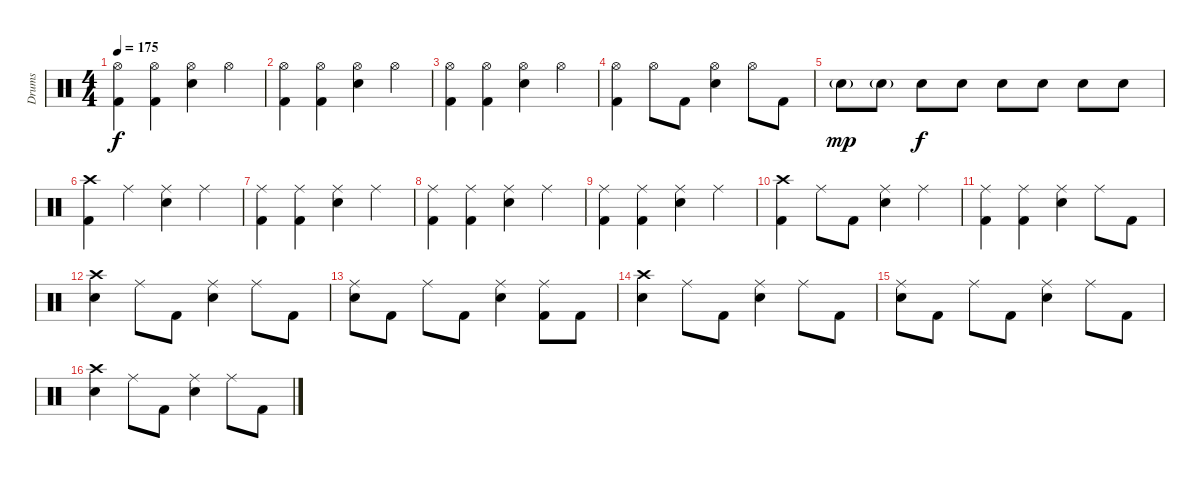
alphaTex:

\track ("Drums" "Drums") {instrument percussion}
\staff {score}
\articulation defaults
\ts (4 4)
\tempo 175
\clef neutral
\ks c
("Hi-Hat (open)" "Kick (hit) 2").4{dy f} ("Hi-Hat (open)" "Kick (hit) 2").4 ("Hi-Hat (open)" "Snare (hit) 2").4 "Hi-Hat (open)".4 |
("Hi-Hat (open)" "Kick (hit) 2").4 ("Hi-Hat (open)" "Kick (hit) 2").4 ("Hi-Hat (open)" "Snare (hit) 2").4 "Hi-Hat (open)".4 |
("Hi-Hat (open)" "Kick (hit) 2").4 ("Hi-Hat (open)" "Kick (hit) 2").4 ("Hi-Hat (open)" "Snare (hit) 2").4 "Hi-Hat (open)".4 |
("Hi-Hat (open)" "Kick (hit) 2").4 "Hi-Hat (open)".8 "Kick (hit) 2".8 ("Hi-Hat (open)" "Snare (hit) 2").4 "Hi-Hat (open)".8 "Kick (hit) 2".8 |
"Snare (hit) 2"{g}.8{dy mp} "Snare (hit) 2"{g}.8 "Snare (hit) 2".8{dy f} "Snare (hit) 2".8 "Snare (hit) 2".8 "Snare (hit) 2".8 "Snare (hit) 2".8 "Snare (hit) 2".8 |
("Crash high (hit)" "Kick (hit) 2").4 "Ride (middle)".4 ("Ride (middle)" "Snare (hit) 2").4 "Ride (middle)".4 |
("Ride (middle)" "Kick (hit) 2").4 ("Ride (middle)" "Kick (hit) 2").4 ("Ride (middle)" "Snare (hit) 2").4 "Ride (middle)".4 |
("Ride (middle)" "Kick (hit) 2").4 ("Ride (middle)" "Kick (hit) 2").4 ("Ride (middle)" "Snare (hit) 2").4 "Ride (middle)".4 |
("Ride (middle)" "Kick (hit) 2").4 ("Ride (middle)" "Kick (hit) 2").4 ("Ride (middle)" "Snare (hit) 2").4 "Ride (middle)".4 |
("Crash high (hit)" "Kick (hit) 2").4 "Ride (middle)".8 "Kick (hit) 2".8 ("Ride (middle)" "Snare (hit) 2").4 "Ride (middle)".4 |
("Ride (middle)" "Kick (hit) 2").4 ("Ride (middle)" "Kick (hit) 2").4 ("Ride (middle)" "Snare (hit) 2").4 "Ride (middle)".8 "Kick (hit) 2".8 |
("Crash high (hit)" "Snare (hit) 2").4 "Ride (middle)".8 "Kick (hit) 2".8 ("Ride (middle)" "Snare (hit) 2").4 "Ride (middle)".8 "Kick (hit) 2".8 |
("Ride (middle)" "Snare (hit) 2").8 "Kick (hit) 2".8 "Ride (middle)".8 "Kick (hit) 2".8 ("Ride (middle)" "Snare (hit) 2").4 ("Ride (middle)" "Kick (hit) 2").8 "Kick (hit) 2".8 |
("Crash high (hit)" "Snare (hit) 2").4 "Ride (middle)".8 "Kick (hit) 2".8 ("Ride (middle)" "Snare (hit) 2").4 "Ride (middle)".8 "Kick (hit) 2".8 |
("Ride (middle)" "Snare (hit) 2").8 "Kick (hit) 2".8 "Ride (middle)".8 "Kick (hit) 2".8 ("Ride (middle)" "Snare (hit) 2").4 "Ride (middle)".8 "Kick (hit) 2".8 |
("Crash high (hit)" "Snare (hit) 2").4 "Ride (middle)".8 "Kick (hit) 2".8 ("Ride (middle)" "Snare (hit) 2").4 "Ride (middle)".8 "Kick (hit) 2".8
